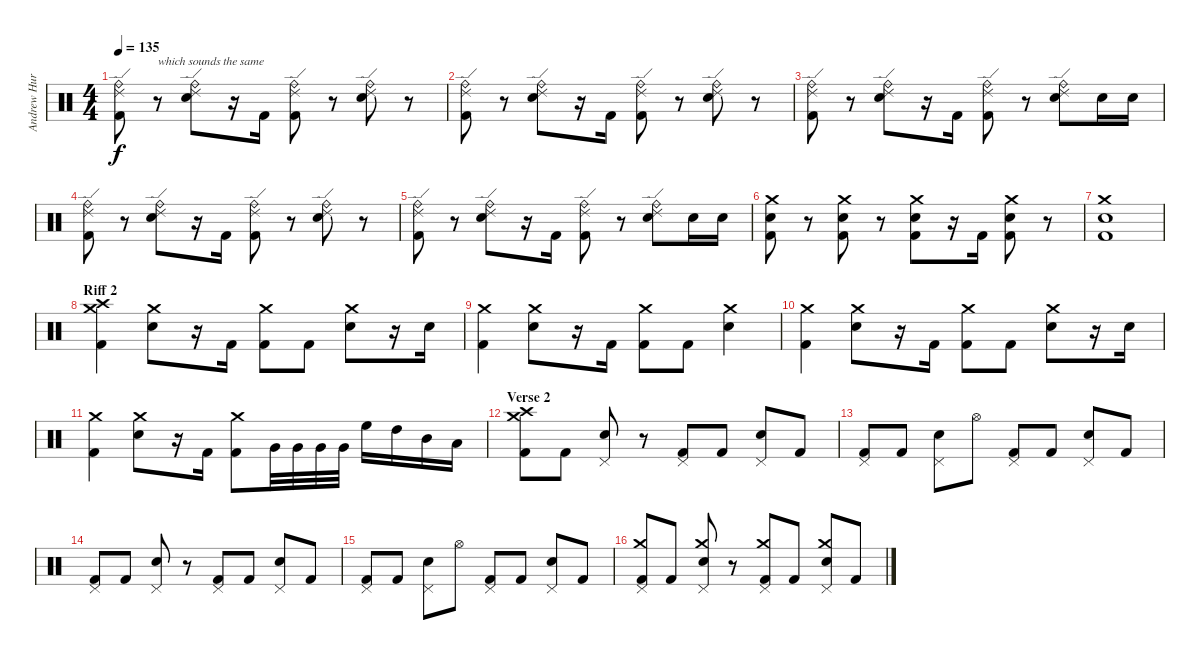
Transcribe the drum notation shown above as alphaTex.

\track ("Andrew Hurley (Drums)" "Andrew Hur") {instrument percussion}
\staff {score}
\articulation defaults
\ts (4 4)
\tempo 135
\clef neutral
\ks c
("Ride (bell)" "Ride (edge) 2" "Kick (hit) 2").8{dy f} r.8{txt "which sounds the same"} ("Ride (bell)" "Ride (edge) 2" "Electric Snare (hit)").8 r.16 "Kick (hit) 2".16 ("Ride (bell)" "Ride (edge) 2" "Kick (hit) 2").8 r.8 ("Ride (bell)" "Ride (edge) 2" "Electric Snare (hit)").8 r.8 |
("Ride (bell)" "Ride (edge) 2" "Kick (hit) 2").8 r.8 ("Ride (bell)" "Ride (edge) 2" "Electric Snare (hit)").8 r.16 "Kick (hit) 2".16 ("Ride (bell)" "Ride (edge) 2" "Kick (hit) 2").8 r.8 ("Ride (bell)" "Ride (edge) 2" "Electric Snare (hit)").8 r.8 |
("Ride (bell)" "Ride (edge) 2" "Kick (hit) 2").8 r.8 ("Ride (bell)" "Ride (edge) 2" "Electric Snare (hit)").8 r.16 "Kick (hit) 2".16 ("Ride (bell)" "Ride (edge) 2" "Kick (hit) 2").8 r.8 ("Ride (bell)" "Ride (edge) 2" "Electric Snare (hit)").8 "Electric Snare (hit)".16 "Electric Snare (hit)".16 |
("Ride (bell)" "Ride (edge) 2" "Kick (hit) 2").8 r.8 ("Ride (bell)" "Ride (edge) 2" "Electric Snare (hit)").8 r.16 "Kick (hit) 2".16 ("Ride (bell)" "Ride (edge) 2" "Kick (hit) 2").8 r.8 ("Ride (bell)" "Ride (edge) 2" "Electric Snare (hit)").8 r.8 |
("Ride (bell)" "Ride (edge) 2" "Kick (hit) 2").8 r.8 ("Ride (bell)" "Ride (edge) 2" "Electric Snare (hit)").8 r.16 "Kick (hit) 2".16 ("Ride (bell)" "Ride (edge) 2" "Kick (hit) 2").8 r.8 ("Ride (bell)" "Ride (edge) 2" "Electric Snare (hit)").8 "Electric Snare (hit)".16 "Electric Snare (hit)".16 |
("Crash medium (hit)" "Electric Snare (hit)" "Kick (hit) 2").8 r.8 ("Crash medium (hit)" "Electric Snare (hit)" "Kick (hit) 2").8 r.8 ("Crash medium (hit)" "Electric Snare (hit)" "Kick (hit) 2").8 r.16 "Kick (hit) 2".16 ("Crash medium (hit)" "Electric Snare (hit)" "Kick (hit) 2").8 r.8 |
("Crash medium (hit)" "Electric Snare (hit)" "Kick (hit) 2").1 |
\section ("" "Riff 2")
("Crash high (hit)" "Crash medium (hit)" "Kick (hit) 2").4 ("Crash medium (hit)" "Electric Snare (hit)").8 r.16 "Kick (hit) 2".16 ("Crash medium (hit)" "Kick (hit) 2").8 "Kick (hit) 2".8 ("Crash medium (hit)" "Electric Snare (hit)").8 r.16 "Electric Snare (hit)".16 |
("Crash medium (hit)" "Kick (hit) 2").4 ("Crash medium (hit)" "Electric Snare (hit)").8 r.16 "Kick (hit) 2".16 ("Crash medium (hit)" "Kick (hit) 2").8 "Kick (hit) 2".8 ("Crash medium (hit)" "Electric Snare (hit)").4 |
("Crash medium (hit)" "Kick (hit) 2").4 ("Crash medium (hit)" "Electric Snare (hit)").8 r.16 "Kick (hit) 2".16 ("Crash medium (hit)" "Kick (hit) 2").8 "Kick (hit) 2".8 ("Crash medium (hit)" "Electric Snare (hit)").8 r.16 "Electric Snare (hit)".16 |
("Crash medium (hit)" "Kick (hit) 2").4 ("Crash medium (hit)" "Electric Snare (hit)").8 r.16 "Kick (hit) 2".16 ("Crash medium (hit)" "Kick (hit) 2").8 "Very Low Tom (hit)".32 "Very Low Tom (hit)".32 "Very Low Tom (hit)".32 "Very Low Tom (hit)".32 "High Floor Tom (hit)".16 "High Tom (hit)".16 "Mid Tom (hit)".16 "Low Tom (hit)".16 |
\section ("" "Verse 2")
("Crash high (hit)" "Crash medium (hit)" "Kick (hit) 2").8 "Kick (hit) 2".8 ("Pedal Hi-Hat (hit)" "Electric Snare (hit)").8 r.8 ("Pedal Hi-Hat (hit)" "Kick (hit) 2").8 "Kick (hit) 2".8 ("Pedal Hi-Hat (hit)" "Electric Snare (hit)").8 "Kick (hit) 2".8 |
("Pedal Hi-Hat (hit)" "Kick (hit) 2").8 "Kick (hit) 2".8 ("Pedal Hi-Hat (hit)" "Electric Snare (hit)").8 "Hi-Hat (open)".8 ("Pedal Hi-Hat (hit)" "Kick (hit) 2").8 "Kick (hit) 2".8 ("Pedal Hi-Hat (hit)" "Electric Snare (hit)").8 "Kick (hit) 2".8 |
("Pedal Hi-Hat (hit)" "Kick (hit) 2").8 "Kick (hit) 2".8 ("Pedal Hi-Hat (hit)" "Electric Snare (hit)").8 r.8 ("Pedal Hi-Hat (hit)" "Kick (hit) 2").8 "Kick (hit) 2".8 ("Pedal Hi-Hat (hit)" "Electric Snare (hit)").8 "Kick (hit) 2".8 |
("Pedal Hi-Hat (hit)" "Kick (hit) 2").8 "Kick (hit) 2".8 ("Pedal Hi-Hat (hit)" "Electric Snare (hit)").8 "Hi-Hat (open)".8 ("Pedal Hi-Hat (hit)" "Kick (hit) 2").8 "Kick (hit) 2".8 ("Pedal Hi-Hat (hit)" "Electric Snare (hit)").8 "Kick (hit) 2".8 |
("Crash medium (hit)" "Pedal Hi-Hat (hit)" "Kick (hit) 2").8 "Kick (hit) 2".8 ("Crash medium (hit)" "Pedal Hi-Hat (hit)" "Electric Snare (hit)").8 r.8 ("Crash medium (hit)" "Pedal Hi-Hat (hit)" "Kick (hit) 2").8 "Kick (hit) 2".8 ("Crash medium (hit)" "Pedal Hi-Hat (hit)" "Electric Snare (hit)").8 "Kick (hit) 2".8
